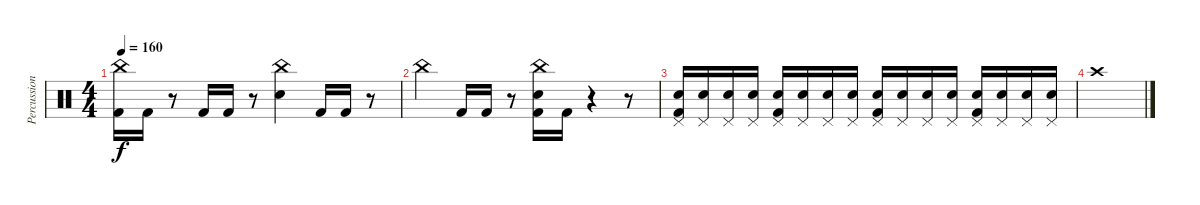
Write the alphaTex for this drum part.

\track ("Percussion" "Percussion") {instrument percussion}
\staff {score}
\articulation defaults
\ts (4 4)
\tempo 160
\clef neutral
\ks c
("China (hit)" "Kick (hit) 2").16{dy f} "Kick (hit) 2".16 r.8 "Kick (hit) 2".16 "Kick (hit) 2".16 r.8 ("China (hit)" "Snare (hit) 2").4 "Kick (hit) 2".16 "Kick (hit) 2".16 r.8 |
"China (hit)".4 "Kick (hit) 2".16 "Kick (hit) 2".16 r.8 ("China (hit)" "Snare (hit) 2" "Kick (hit) 2").16 "Kick (hit) 2".16 r.4 r.8 |
("Pedal Hi-Hat (hit)" "Snare (hit) 2" "Kick (hit) 2").16 ("Pedal Hi-Hat (hit)" "Snare (hit) 2").16 ("Pedal Hi-Hat (hit)" "Snare (hit) 2").16 ("Pedal Hi-Hat (hit)" "Snare (hit) 2").16 ("Pedal Hi-Hat (hit)" "Snare (hit) 2" "Kick (hit) 2").16 ("Pedal Hi-Hat (hit)" "Snare (hit) 2").16 ("Pedal Hi-Hat (hit)" "Snare (hit) 2").16 ("Pedal Hi-Hat (hit)" "Snare (hit) 2").16 ("Pedal Hi-Hat (hit)" "Snare (hit) 2" "Kick (hit) 2").16 ("Pedal Hi-Hat (hit)" "Snare (hit) 2").16 ("Pedal Hi-Hat (hit)" "Snare (hit) 2").16 ("Pedal Hi-Hat (hit)" "Snare (hit) 2").16 ("Pedal Hi-Hat (hit)" "Snare (hit) 2" "Kick (hit) 2").16 ("Pedal Hi-Hat (hit)" "Snare (hit) 2").16 ("Pedal Hi-Hat (hit)" "Snare (hit) 2").16 ("Pedal Hi-Hat (hit)" "Snare (hit) 2").16 |
"Crash high (hit)".1
